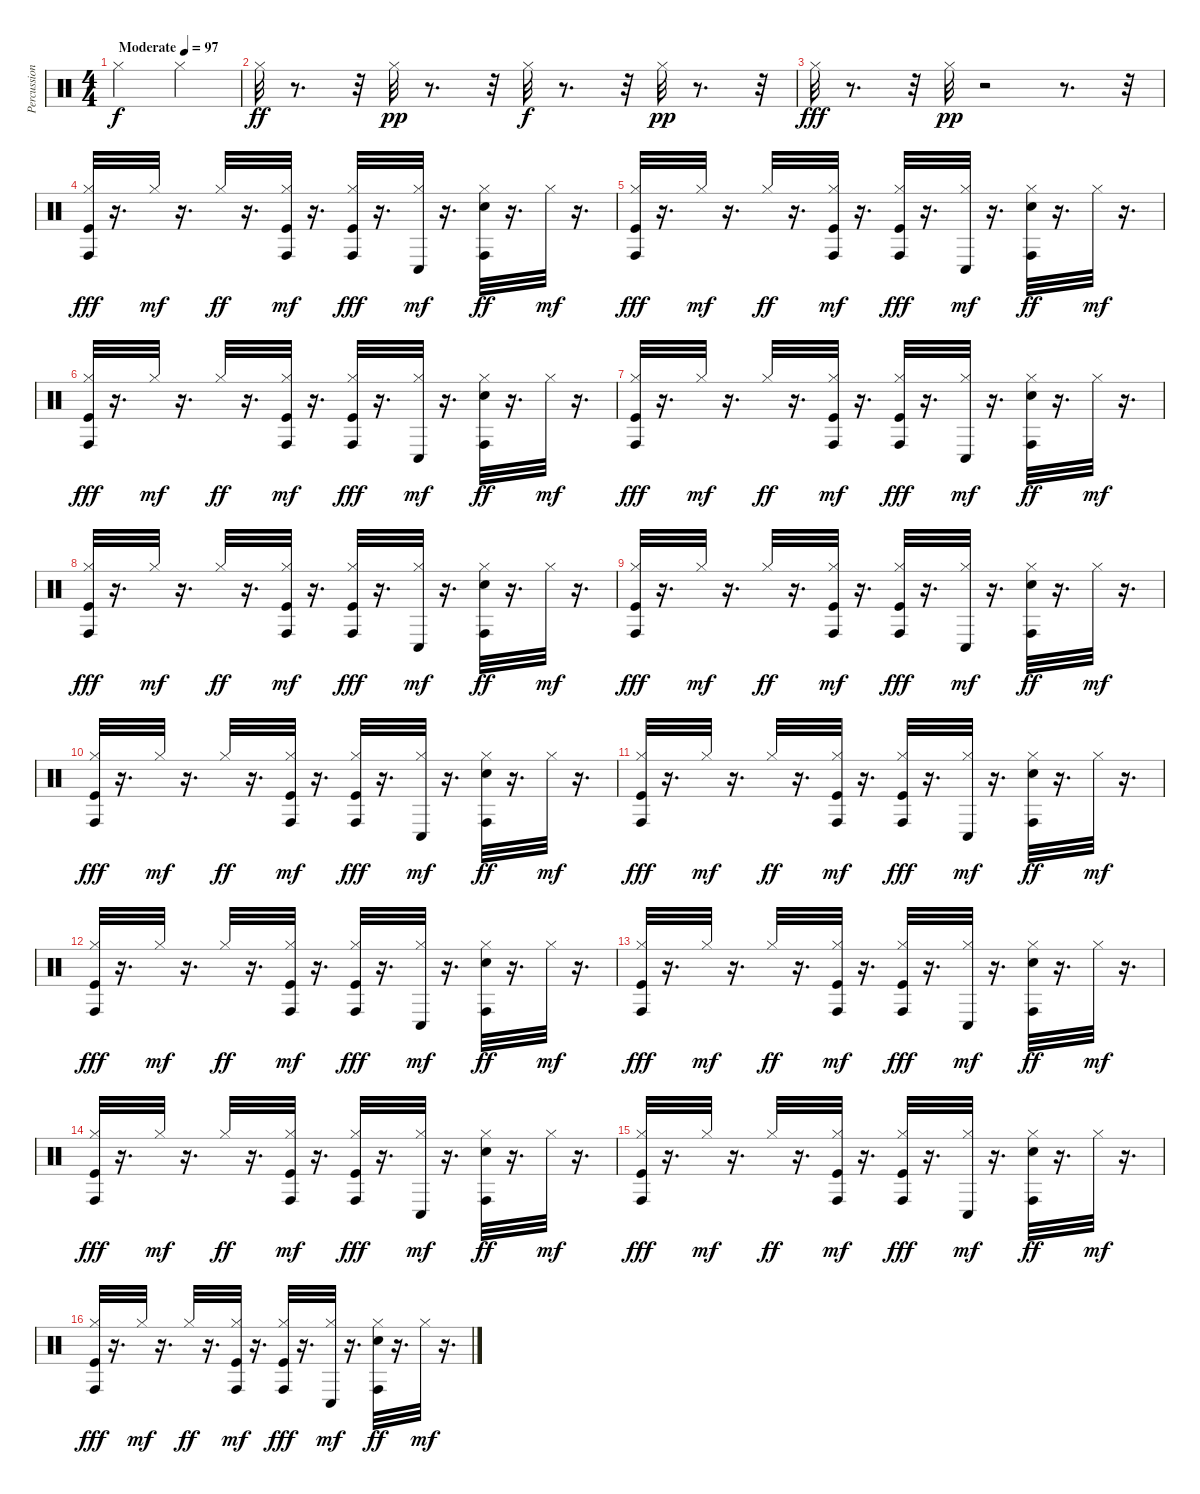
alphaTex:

\track ("Percussion" "Percussion") {instrument percussion}
\staff {score}
\articulation defaults
\ts (4 4)
\tempo (97 "Moderate")
\clef neutral
\ks c "Hi-Hat (closed)".2{dy f} "Hi-Hat (closed)".2
|
"Hi-Hat (closed)".32{dy ff} r.8{d} r.32 "Hi-Hat (closed)".32{dy pp} r.8{d} r.32 "Hi-Hat (closed)".32{dy f} r.8{d} r.32 "Hi-Hat (closed)".32{dy pp} r.8{d} r.32 |
"Hi-Hat (closed)".32{dy fff} r.8{d} r.32 "Hi-Hat (closed)".32{dy pp} r.2 r.8{d} r.32 |
("Kick (hit)" "Hi-Hat (closed)" "Conga high (hit)").32{dy fff} r.16{d} "Hi-Hat (closed)".32{dy mf} r.16{d} "Hi-Hat (closed)".32{dy ff} r.16{d} ("Kick (hit)" "Hi-Hat (closed)" "Conga high (hit)").32{dy mf} r.16{d} ("Kick (hit)" "Hi-Hat (closed)" "Conga high (hit)").32{dy fff} r.16{d} ("Conga low (hit)" "Hi-Hat (closed)").32{dy mf} r.16{d} ("Conga high (hit)" "Snare (hit) 2" "Hi-Hat (closed)").32{dy ff} r.16{d} "Hi-Hat (closed)".32{dy mf} r.16{d} |
("Kick (hit)" "Hi-Hat (closed)" "Conga high (hit)").32{dy fff} r.16{d} "Hi-Hat (closed)".32{dy mf} r.16{d} "Hi-Hat (closed)".32{dy ff} r.16{d} ("Kick (hit)" "Hi-Hat (closed)" "Conga high (hit)").32{dy mf} r.16{d} ("Kick (hit)" "Hi-Hat (closed)" "Conga high (hit)").32{dy fff} r.16{d} ("Conga low (hit)" "Hi-Hat (closed)").32{dy mf} r.16{d} ("Conga high (hit)" "Snare (hit) 2" "Hi-Hat (closed)").32{dy ff} r.16{d} "Hi-Hat (closed)".32{dy mf} r.16{d} |
("Kick (hit)" "Hi-Hat (closed)" "Conga high (hit)").32{dy fff} r.16{d} "Hi-Hat (closed)".32{dy mf} r.16{d} "Hi-Hat (closed)".32{dy ff} r.16{d} ("Kick (hit)" "Hi-Hat (closed)" "Conga high (hit)").32{dy mf} r.16{d} ("Kick (hit)" "Hi-Hat (closed)" "Conga high (hit)").32{dy fff} r.16{d} ("Conga low (hit)" "Hi-Hat (closed)").32{dy mf} r.16{d} ("Conga high (hit)" "Snare (hit) 2" "Hi-Hat (closed)").32{dy ff} r.16{d} "Hi-Hat (closed)".32{dy mf} r.16{d} |
("Kick (hit)" "Hi-Hat (closed)" "Conga high (hit)").32{dy fff} r.16{d} "Hi-Hat (closed)".32{dy mf} r.16{d} "Hi-Hat (closed)".32{dy ff} r.16{d} ("Kick (hit)" "Hi-Hat (closed)" "Conga high (hit)").32{dy mf} r.16{d} ("Kick (hit)" "Hi-Hat (closed)" "Conga high (hit)").32{dy fff} r.16{d} ("Conga low (hit)" "Hi-Hat (closed)").32{dy mf} r.16{d} ("Conga high (hit)" "Snare (hit) 2" "Hi-Hat (closed)").32{dy ff} r.16{d} "Hi-Hat (closed)".32{dy mf} r.16{d} |
("Kick (hit)" "Hi-Hat (closed)" "Conga high (hit)").32{dy fff} r.16{d} "Hi-Hat (closed)".32{dy mf} r.16{d} "Hi-Hat (closed)".32{dy ff} r.16{d} ("Kick (hit)" "Hi-Hat (closed)" "Conga high (hit)").32{dy mf} r.16{d} ("Kick (hit)" "Hi-Hat (closed)" "Conga high (hit)").32{dy fff} r.16{d} ("Conga low (hit)" "Hi-Hat (closed)").32{dy mf} r.16{d} ("Conga high (hit)" "Snare (hit) 2" "Hi-Hat (closed)").32{dy ff} r.16{d} "Hi-Hat (closed)".32{dy mf} r.16{d} |
("Kick (hit)" "Hi-Hat (closed)" "Conga high (hit)").32{dy fff} r.16{d} "Hi-Hat (closed)".32{dy mf} r.16{d} "Hi-Hat (closed)".32{dy ff} r.16{d} ("Kick (hit)" "Hi-Hat (closed)" "Conga high (hit)").32{dy mf} r.16{d} ("Kick (hit)" "Hi-Hat (closed)" "Conga high (hit)").32{dy fff} r.16{d} ("Conga low (hit)" "Hi-Hat (closed)").32{dy mf} r.16{d} ("Conga high (hit)" "Snare (hit) 2" "Hi-Hat (closed)").32{dy ff} r.16{d} "Hi-Hat (closed)".32{dy mf} r.16{d} |
("Kick (hit)" "Hi-Hat (closed)" "Conga high (hit)").32{dy fff} r.16{d} "Hi-Hat (closed)".32{dy mf} r.16{d} "Hi-Hat (closed)".32{dy ff} r.16{d} ("Kick (hit)" "Hi-Hat (closed)" "Conga high (hit)").32{dy mf} r.16{d} ("Kick (hit)" "Hi-Hat (closed)" "Conga high (hit)").32{dy fff} r.16{d} ("Conga low (hit)" "Hi-Hat (closed)").32{dy mf} r.16{d} ("Conga high (hit)" "Snare (hit) 2" "Hi-Hat (closed)").32{dy ff} r.16{d} "Hi-Hat (closed)".32{dy mf} r.16{d} |
("Kick (hit)" "Hi-Hat (closed)" "Conga high (hit)").32{dy fff} r.16{d} "Hi-Hat (closed)".32{dy mf} r.16{d} "Hi-Hat (closed)".32{dy ff} r.16{d} ("Kick (hit)" "Hi-Hat (closed)" "Conga high (hit)").32{dy mf} r.16{d} ("Kick (hit)" "Hi-Hat (closed)" "Conga high (hit)").32{dy fff} r.16{d} ("Conga low (hit)" "Hi-Hat (closed)").32{dy mf} r.16{d} ("Conga high (hit)" "Snare (hit) 2" "Hi-Hat (closed)").32{dy ff} r.16{d} "Hi-Hat (closed)".32{dy mf} r.16{d} |
("Kick (hit)" "Hi-Hat (closed)" "Conga high (hit)").32{dy fff} r.16{d} "Hi-Hat (closed)".32{dy mf} r.16{d} "Hi-Hat (closed)".32{dy ff} r.16{d} ("Kick (hit)" "Hi-Hat (closed)" "Conga high (hit)").32{dy mf} r.16{d} ("Kick (hit)" "Hi-Hat (closed)" "Conga high (hit)").32{dy fff} r.16{d} ("Conga low (hit)" "Hi-Hat (closed)").32{dy mf} r.16{d} ("Conga high (hit)" "Snare (hit) 2" "Hi-Hat (closed)").32{dy ff} r.16{d} "Hi-Hat (closed)".32{dy mf} r.16{d} |
("Kick (hit)" "Hi-Hat (closed)" "Conga high (hit)").32{dy fff} r.16{d} "Hi-Hat (closed)".32{dy mf} r.16{d} "Hi-Hat (closed)".32{dy ff} r.16{d} ("Kick (hit)" "Hi-Hat (closed)" "Conga high (hit)").32{dy mf} r.16{d} ("Kick (hit)" "Hi-Hat (closed)" "Conga high (hit)").32{dy fff} r.16{d} ("Conga low (hit)" "Hi-Hat (closed)").32{dy mf} r.16{d} ("Conga high (hit)" "Snare (hit) 2" "Hi-Hat (closed)").32{dy ff} r.16{d} "Hi-Hat (closed)".32{dy mf} r.16{d} |
("Kick (hit)" "Hi-Hat (closed)" "Conga high (hit)").32{dy fff} r.16{d} "Hi-Hat (closed)".32{dy mf} r.16{d} "Hi-Hat (closed)".32{dy ff} r.16{d} ("Kick (hit)" "Hi-Hat (closed)" "Conga high (hit)").32{dy mf} r.16{d} ("Kick (hit)" "Hi-Hat (closed)" "Conga high (hit)").32{dy fff} r.16{d} ("Conga low (hit)" "Hi-Hat (closed)").32{dy mf} r.16{d} ("Conga high (hit)" "Snare (hit) 2" "Hi-Hat (closed)").32{dy ff} r.16{d} "Hi-Hat (closed)".32{dy mf} r.16{d} |
("Kick (hit)" "Hi-Hat (closed)" "Conga high (hit)").32{dy fff} r.16{d} "Hi-Hat (closed)".32{dy mf} r.16{d} "Hi-Hat (closed)".32{dy ff} r.16{d} ("Kick (hit)" "Hi-Hat (closed)" "Conga high (hit)").32{dy mf} r.16{d} ("Kick (hit)" "Hi-Hat (closed)" "Conga high (hit)").32{dy fff} r.16{d} ("Conga low (hit)" "Hi-Hat (closed)").32{dy mf} r.16{d} ("Conga high (hit)" "Snare (hit) 2" "Hi-Hat (closed)").32{dy ff} r.16{d} "Hi-Hat (closed)".32{dy mf} r.16{d} |
("Kick (hit)" "Hi-Hat (closed)" "Conga high (hit)").32{dy fff} r.16{d} "Hi-Hat (closed)".32{dy mf} r.16{d} "Hi-Hat (closed)".32{dy ff} r.16{d} ("Kick (hit)" "Hi-Hat (closed)" "Conga high (hit)").32{dy mf} r.16{d} ("Kick (hit)" "Hi-Hat (closed)" "Conga high (hit)").32{dy fff} r.16{d} ("Conga low (hit)" "Hi-Hat (closed)").32{dy mf} r.16{d} ("Conga high (hit)" "Snare (hit) 2" "Hi-Hat (closed)").32{dy ff} r.16{d} "Hi-Hat (closed)".32{dy mf} r.16{d}
